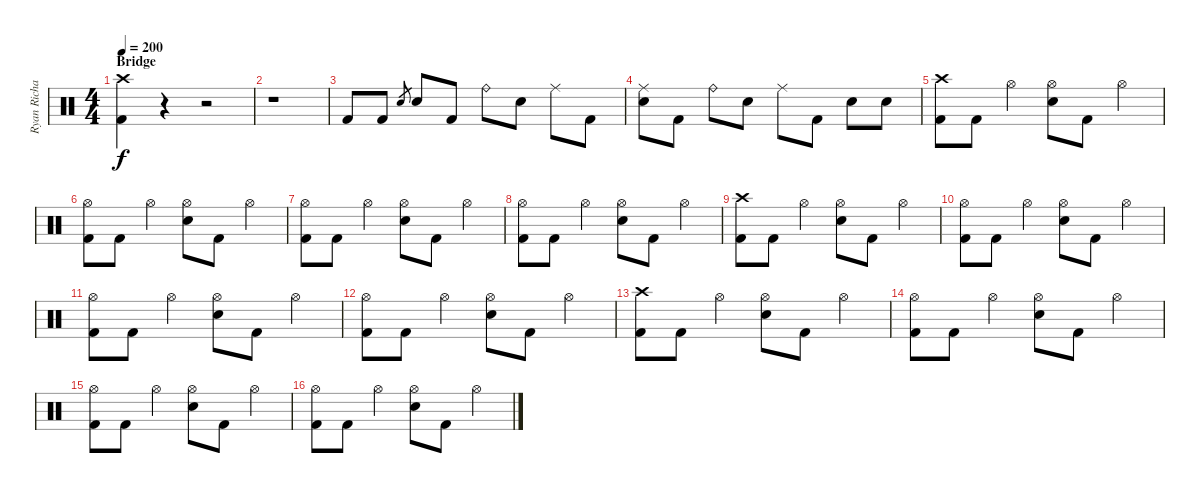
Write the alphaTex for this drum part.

\track ("Ryan Richards" "Ryan Richa") {instrument percussion}
\staff {score}
\articulation defaults
\ts (4 4)
\section ("" "Bridge")
\tempo 200
\clef neutral
\ks c
("Crash high (hit)" "Kick (hit) 2").4{dy f} r.4 r.2 |
r.1 |
"Kick (hit) 2".8 "Kick (hit) 2".8 "Electric Snare (hit)".8{gr} "Electric Snare (hit)".8 "Kick (hit) 2".8 "Ride (bell)".8 "Electric Snare (hit)".8 "Ride (middle)".8 "Kick (hit) 2".8 |
("Ride (middle)" "Electric Snare (hit)").8 "Kick (hit) 2".8 "Ride (bell)".8 "Electric Snare (hit)".8 "Ride (middle)".8 "Kick (hit) 2".8 "Electric Snare (hit)".8 "Electric Snare (hit)".8 |
("Crash high (hit)" "Kick (hit) 2").8 "Kick (hit) 2".8 "Hi-Hat (open)".4 ("Hi-Hat (open)" "Electric Snare (hit)").8 "Kick (hit) 2".8 "Hi-Hat (open)".4 |
("Hi-Hat (open)" "Kick (hit) 2").8 "Kick (hit) 2".8 "Hi-Hat (open)".4 ("Hi-Hat (open)" "Electric Snare (hit)").8 "Kick (hit) 2".8 "Hi-Hat (open)".4 |
("Hi-Hat (open)" "Kick (hit) 2").8 "Kick (hit) 2".8 "Hi-Hat (open)".4 ("Hi-Hat (open)" "Electric Snare (hit)").8 "Kick (hit) 2".8 "Hi-Hat (open)".4 |
("Hi-Hat (open)" "Kick (hit) 2").8 "Kick (hit) 2".8 "Hi-Hat (open)".4 ("Hi-Hat (open)" "Electric Snare (hit)").8 "Kick (hit) 2".8 "Hi-Hat (open)".4 |
("Crash high (hit)" "Kick (hit) 2").8 "Kick (hit) 2".8 "Hi-Hat (open)".4 ("Hi-Hat (open)" "Electric Snare (hit)").8 "Kick (hit) 2".8 "Hi-Hat (open)".4 |
("Hi-Hat (open)" "Kick (hit) 2").8 "Kick (hit) 2".8 "Hi-Hat (open)".4 ("Hi-Hat (open)" "Electric Snare (hit)").8 "Kick (hit) 2".8 "Hi-Hat (open)".4 |
("Hi-Hat (open)" "Kick (hit) 2").8 "Kick (hit) 2".8 "Hi-Hat (open)".4 ("Hi-Hat (open)" "Electric Snare (hit)").8 "Kick (hit) 2".8 "Hi-Hat (open)".4 |
("Hi-Hat (open)" "Kick (hit) 2").8 "Kick (hit) 2".8 "Hi-Hat (open)".4 ("Hi-Hat (open)" "Electric Snare (hit)").8 "Kick (hit) 2".8 "Hi-Hat (open)".4 |
("Crash high (hit)" "Kick (hit) 2").8 "Kick (hit) 2".8 "Hi-Hat (open)".4 ("Hi-Hat (open)" "Electric Snare (hit)").8 "Kick (hit) 2".8 "Hi-Hat (open)".4 |
("Hi-Hat (open)" "Kick (hit) 2").8 "Kick (hit) 2".8 "Hi-Hat (open)".4 ("Hi-Hat (open)" "Electric Snare (hit)").8 "Kick (hit) 2".8 "Hi-Hat (open)".4 |
("Hi-Hat (open)" "Kick (hit) 2").8 "Kick (hit) 2".8 "Hi-Hat (open)".4 ("Hi-Hat (open)" "Electric Snare (hit)").8 "Kick (hit) 2".8 "Hi-Hat (open)".4 |
("Hi-Hat (open)" "Kick (hit) 2").8 "Kick (hit) 2".8 "Hi-Hat (open)".4 ("Hi-Hat (open)" "Electric Snare (hit)").8 "Kick (hit) 2".8 "Hi-Hat (open)".4
